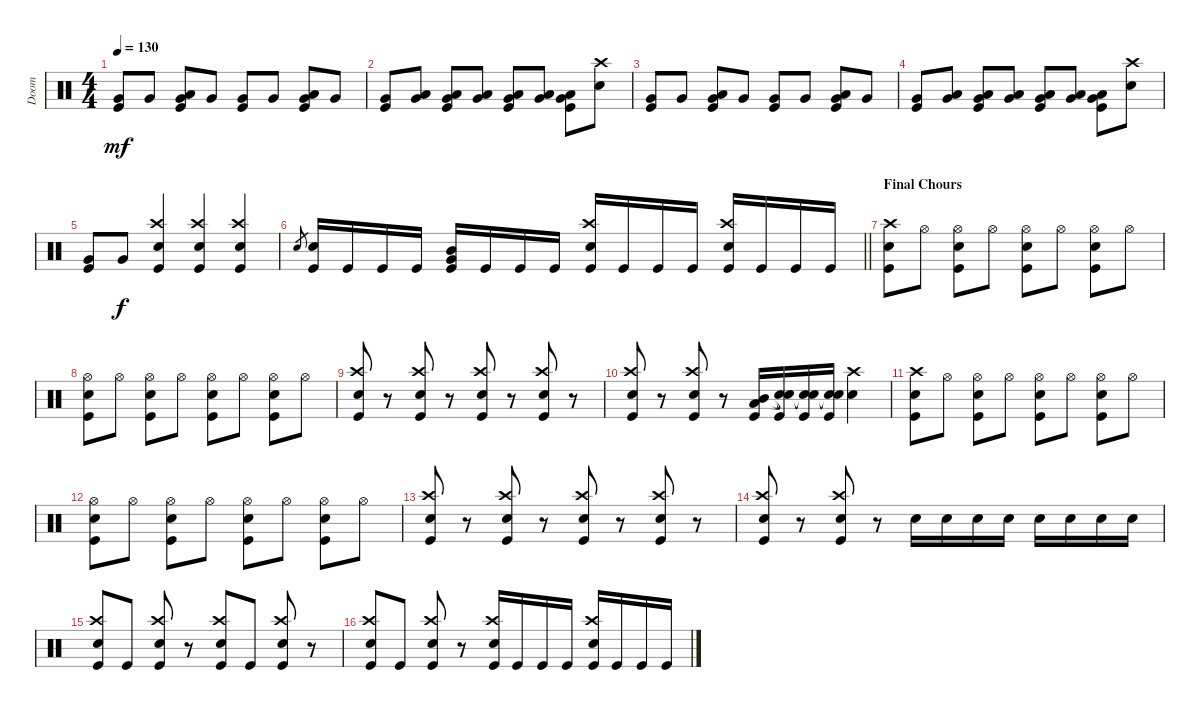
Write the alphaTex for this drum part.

\track ("Doom" "Doom") {instrument percussion}
\staff {score}
\articulation defaults
\ts (4 4)
\tempo 130
\clef neutral
\ks c
("Very Low Tom (hit)" "Kick (hit)").8{dy mf} "Very Low Tom (hit)".8 ("Low Tom (hit)" "Very Low Tom (hit)" "Kick (hit)").8 "Very Low Tom (hit)".8 ("Very Low Tom (hit)" "Kick (hit)").8 "Very Low Tom (hit)".8 ("Low Tom (hit)" "Very Low Tom (hit)" "Kick (hit)").8 "Very Low Tom (hit)".8 |
("Very Low Tom (hit)" "Kick (hit)").8 ("Low Tom (hit)" "Very Low Tom (hit)").8 ("Low Tom (hit)" "Very Low Tom (hit)" "Kick (hit)").8 ("Low Tom (hit)" "Very Low Tom (hit)").8 ("Low Tom (hit)" "Very Low Tom (hit)" "Kick (hit)").8 ("Low Tom (hit)" "Very Low Tom (hit)").8 ("Low Tom (hit)" "Very Low Tom (hit)" "Kick (hit)").8 ("Crash high (hit)" "Electric Snare (hit)").8 |
("Very Low Tom (hit)" "Kick (hit)").8 "Very Low Tom (hit)".8 ("Low Tom (hit)" "Very Low Tom (hit)" "Kick (hit)").8 "Very Low Tom (hit)".8 ("Very Low Tom (hit)" "Kick (hit)").8 "Very Low Tom (hit)".8 ("Low Tom (hit)" "Very Low Tom (hit)" "Kick (hit)").8 "Very Low Tom (hit)".8 |
("Very Low Tom (hit)" "Kick (hit)").8 ("Low Tom (hit)" "Very Low Tom (hit)").8 ("Low Tom (hit)" "Very Low Tom (hit)" "Kick (hit)").8 ("Low Tom (hit)" "Very Low Tom (hit)").8 ("Low Tom (hit)" "Very Low Tom (hit)" "Kick (hit)").8 ("Low Tom (hit)" "Very Low Tom (hit)").8 ("Low Tom (hit)" "Very Low Tom (hit)" "Kick (hit)").8 ("Crash high (hit)" "Electric Snare (hit)").8 |
("Very Low Tom (hit)" "Kick (hit)").8 "Very Low Tom (hit)".8{dy f} ("Crash high (hit)" "Electric Snare (hit)" "Kick (hit)").4 ("Crash high (hit)" "Electric Snare (hit)" "Kick (hit)").4 ("Crash high (hit)" "Electric Snare (hit)" "Kick (hit)").4 |
\barLineRight lightlight "Electric Snare (hit)".8{gr}
("Electric Snare (hit)" "Kick (hit)").16 "Kick (hit)".16 "Kick (hit)".16 "Kick (hit)".16 ("Very Low Tom (hit)" "Mid Tom (hit)" "Kick (hit)").16 "Kick (hit)".16 "Kick (hit)".16 "Kick (hit)".16 ("Crash high (hit)" "Electric Snare (hit)" "Kick (hit)").16 "Kick (hit)".16 "Kick (hit)".16 "Kick (hit)".16 ("Crash high (hit)" "Electric Snare (hit)" "Kick (hit)").16 "Kick (hit)".16 "Kick (hit)".16 "Kick (hit)".16 |
\section ("" "Final Chours")
("Crash high (hit)" "Electric Snare (hit)" "Kick (hit)").8 "Hi-Hat (open)".8 ("Hi-Hat (open)" "Electric Snare (hit)" "Kick (hit)").8 "Hi-Hat (open)".8 ("Hi-Hat (open)" "Electric Snare (hit)" "Kick (hit)").8 "Hi-Hat (open)".8 ("Hi-Hat (open)" "Electric Snare (hit)" "Kick (hit)").8 "Hi-Hat (open)".8 |
("Hi-Hat (open)" "Electric Snare (hit)" "Kick (hit)").8 "Hi-Hat (open)".8 ("Hi-Hat (open)" "Electric Snare (hit)" "Kick (hit)").8 "Hi-Hat (open)".8 ("Hi-Hat (open)" "Electric Snare (hit)" "Kick (hit)").8 "Hi-Hat (open)".8 ("Hi-Hat (open)" "Electric Snare (hit)" "Kick (hit)").8 "Hi-Hat (open)".8 |
("Crash high (hit)" "Electric Snare (hit)" "Kick (hit)").8 r.8 ("Crash high (hit)" "Electric Snare (hit)" "Kick (hit)").8 r.8 ("Crash high (hit)" "Electric Snare (hit)" "Kick (hit)").8 r.8 ("Crash high (hit)" "Electric Snare (hit)" "Kick (hit)").8 r.8 |
("Crash high (hit)" "Electric Snare (hit)" "Kick (hit)").8 r.8 ("Crash high (hit)" "Electric Snare (hit)" "Kick (hit)").8 r.8 ("Low Tom (hit)" "Mid Tom (hit)" "Kick (hit)").16 ("Snare (hit)"{t} "Snare (hit)"{t} "Kick (hit)").16 ("Snare (hit)"{t} "Snare (hit)"{t} "Kick (hit)").16 ("Snare (hit)"{t} "Snare (hit)"{t} "Kick (hit)").16 ("Crash high (hit)" "Electric Snare (hit)").4 |
("Crash high (hit)" "Electric Snare (hit)" "Kick (hit)").8 "Hi-Hat (open)".8 ("Hi-Hat (open)" "Electric Snare (hit)" "Kick (hit)").8 "Hi-Hat (open)".8 ("Hi-Hat (open)" "Electric Snare (hit)" "Kick (hit)").8 "Hi-Hat (open)".8 ("Hi-Hat (open)" "Electric Snare (hit)" "Kick (hit)").8 "Hi-Hat (open)".8 |
("Hi-Hat (open)" "Electric Snare (hit)" "Kick (hit)").8 "Hi-Hat (open)".8 ("Hi-Hat (open)" "Electric Snare (hit)" "Kick (hit)").8 "Hi-Hat (open)".8 ("Hi-Hat (open)" "Electric Snare (hit)" "Kick (hit)").8 "Hi-Hat (open)".8 ("Hi-Hat (open)" "Electric Snare (hit)" "Kick (hit)").8 "Hi-Hat (open)".8 |
("Crash high (hit)" "Electric Snare (hit)" "Kick (hit)").8 r.8 ("Crash high (hit)" "Electric Snare (hit)" "Kick (hit)").8 r.8 ("Crash high (hit)" "Electric Snare (hit)" "Kick (hit)").8 r.8 ("Crash high (hit)" "Electric Snare (hit)" "Kick (hit)").8 r.8 |
("Crash high (hit)" "Electric Snare (hit)" "Kick (hit)").8 r.8 ("Crash high (hit)" "Electric Snare (hit)" "Kick (hit)").8 r.8 "Electric Snare (hit)".16 "Electric Snare (hit)".16 "Electric Snare (hit)".16 "Electric Snare (hit)".16 "Electric Snare (hit)".16 "Electric Snare (hit)".16 "Electric Snare (hit)".16 "Electric Snare (hit)".16 |
("Crash high (hit)" "Electric Snare (hit)" "Kick (hit)").8 "Kick (hit)".8 ("Crash high (hit)" "Electric Snare (hit)" "Kick (hit)").8 r.8 ("Crash high (hit)" "Electric Snare (hit)" "Kick (hit)").8 "Kick (hit)".8 ("Crash high (hit)" "Electric Snare (hit)" "Kick (hit)").8 r.8 |
("Crash high (hit)" "Electric Snare (hit)" "Kick (hit)").8 "Kick (hit)".8 ("Crash high (hit)" "Electric Snare (hit)" "Kick (hit)").8 r.8 ("Crash high (hit)" "Electric Snare (hit)" "Kick (hit)").16 "Kick (hit)".16 "Kick (hit)".16 "Kick (hit)".16 ("Crash high (hit)" "Electric Snare (hit)" "Kick (hit)").16 "Kick (hit)".16 "Kick (hit)".16 "Kick (hit)".16
